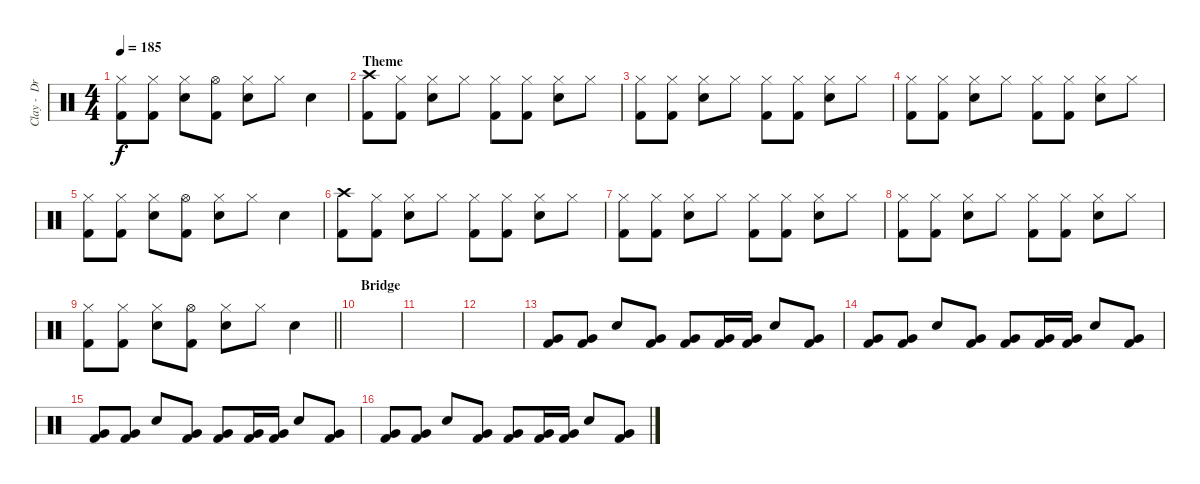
\track ("Clay -  Drums" "Clay -  Dr") {instrument percussion}
\staff {score}
\articulation defaults
\ts (4 4)
\tempo 185
\clef neutral
\ks c
("Hi-Hat (closed)" "Kick (hit) 2").8{dy f} ("Hi-Hat (closed)" "Kick (hit) 2").8 ("Hi-Hat (closed)" "Electric Snare (hit)").8 ("Hi-Hat (open)" "Kick (hit) 2").8 ("Hi-Hat (closed)" "Electric Snare (hit)").8 "Hi-Hat (closed)".8 "Electric Snare (hit)".4 |
\section ("" "Theme")
("Crash high (hit)" "Kick (hit) 2").8 ("Hi-Hat (closed)" "Kick (hit) 2").8 ("Hi-Hat (closed)" "Electric Snare (hit)").8 "Hi-Hat (closed)".8 ("Hi-Hat (closed)" "Kick (hit) 2").8 ("Hi-Hat (closed)" "Kick (hit) 2").8 ("Hi-Hat (closed)" "Electric Snare (hit)").8 "Hi-Hat (closed)".8 |
("Hi-Hat (closed)" "Kick (hit) 2").8 ("Hi-Hat (closed)" "Kick (hit) 2").8 ("Hi-Hat (closed)" "Electric Snare (hit)").8 "Hi-Hat (closed)".8 ("Hi-Hat (closed)" "Kick (hit) 2").8 ("Hi-Hat (closed)" "Kick (hit) 2").8 ("Hi-Hat (closed)" "Electric Snare (hit)").8 "Hi-Hat (closed)".8 |
("Hi-Hat (closed)" "Kick (hit) 2").8 ("Hi-Hat (closed)" "Kick (hit) 2").8 ("Hi-Hat (closed)" "Electric Snare (hit)").8 "Hi-Hat (closed)".8 ("Hi-Hat (closed)" "Kick (hit) 2").8 ("Hi-Hat (closed)" "Kick (hit) 2").8 ("Hi-Hat (closed)" "Electric Snare (hit)").8 "Hi-Hat (closed)".8 |
("Hi-Hat (closed)" "Kick (hit) 2").8 ("Hi-Hat (closed)" "Kick (hit) 2").8 ("Hi-Hat (closed)" "Electric Snare (hit)").8 ("Hi-Hat (open)" "Kick (hit) 2").8 ("Hi-Hat (closed)" "Electric Snare (hit)").8 "Hi-Hat (closed)".8 "Electric Snare (hit)".4 |
("Crash high (hit)" "Kick (hit) 2").8 ("Hi-Hat (closed)" "Kick (hit) 2").8 ("Hi-Hat (closed)" "Electric Snare (hit)").8 "Hi-Hat (closed)".8 ("Hi-Hat (closed)" "Kick (hit) 2").8 ("Hi-Hat (closed)" "Kick (hit) 2").8 ("Hi-Hat (closed)" "Electric Snare (hit)").8 "Hi-Hat (closed)".8 |
("Hi-Hat (closed)" "Kick (hit) 2").8 ("Hi-Hat (closed)" "Kick (hit) 2").8 ("Hi-Hat (closed)" "Electric Snare (hit)").8 "Hi-Hat (closed)".8 ("Hi-Hat (closed)" "Kick (hit) 2").8 ("Hi-Hat (closed)" "Kick (hit) 2").8 ("Hi-Hat (closed)" "Electric Snare (hit)").8 "Hi-Hat (closed)".8 |
("Hi-Hat (closed)" "Kick (hit) 2").8 ("Hi-Hat (closed)" "Kick (hit) 2").8 ("Hi-Hat (closed)" "Electric Snare (hit)").8 "Hi-Hat (closed)".8 ("Hi-Hat (closed)" "Kick (hit) 2").8 ("Hi-Hat (closed)" "Kick (hit) 2").8 ("Hi-Hat (closed)" "Electric Snare (hit)").8 "Hi-Hat (closed)".8 |
\barLineRight lightlight
("Hi-Hat (closed)" "Kick (hit) 2").8 ("Hi-Hat (closed)" "Kick (hit) 2").8 ("Hi-Hat (closed)" "Electric Snare (hit)").8 ("Hi-Hat (open)" "Kick (hit) 2").8 ("Hi-Hat (closed)" "Electric Snare (hit)").8 "Hi-Hat (closed)".8 "Electric Snare (hit)".4 |
\section ("" "Bridge")
|
|
|
("Very Low Tom (hit)" "Kick (hit) 2").8{volume 14} ("Very Low Tom (hit)" "Kick (hit) 2").8 "Electric Snare (hit)".8 ("Very Low Tom (hit)" "Kick (hit) 2").8 ("Very Low Tom (hit)" "Kick (hit) 2").8 ("Very Low Tom (hit)" "Kick (hit) 2").16 ("Very Low Tom (hit)" "Kick (hit) 2").16 "Electric Snare (hit)".8 ("Very Low Tom (hit)" "Kick (hit) 2").8 |
("Very Low Tom (hit)" "Kick (hit) 2").8 ("Very Low Tom (hit)" "Kick (hit) 2").8 "Electric Snare (hit)".8 ("Very Low Tom (hit)" "Kick (hit) 2").8 ("Very Low Tom (hit)" "Kick (hit) 2").8 ("Very Low Tom (hit)" "Kick (hit) 2").16 ("Very Low Tom (hit)" "Kick (hit) 2").16 "Electric Snare (hit)".8 ("Very Low Tom (hit)" "Kick (hit) 2").8 |
("Very Low Tom (hit)" "Kick (hit) 2").8 ("Very Low Tom (hit)" "Kick (hit) 2").8 "Electric Snare (hit)".8 ("Very Low Tom (hit)" "Kick (hit) 2").8 ("Very Low Tom (hit)" "Kick (hit) 2").8 ("Very Low Tom (hit)" "Kick (hit) 2").16 ("Very Low Tom (hit)" "Kick (hit) 2").16 "Electric Snare (hit)".8 ("Very Low Tom (hit)" "Kick (hit) 2").8 |
("Very Low Tom (hit)" "Kick (hit) 2").8 ("Very Low Tom (hit)" "Kick (hit) 2").8 "Electric Snare (hit)".8 ("Very Low Tom (hit)" "Kick (hit) 2").8 ("Very Low Tom (hit)" "Kick (hit) 2").8 ("Very Low Tom (hit)" "Kick (hit) 2").16 ("Very Low Tom (hit)" "Kick (hit) 2").16 "Electric Snare (hit)".8 ("Very Low Tom (hit)" "Kick (hit) 2").8
